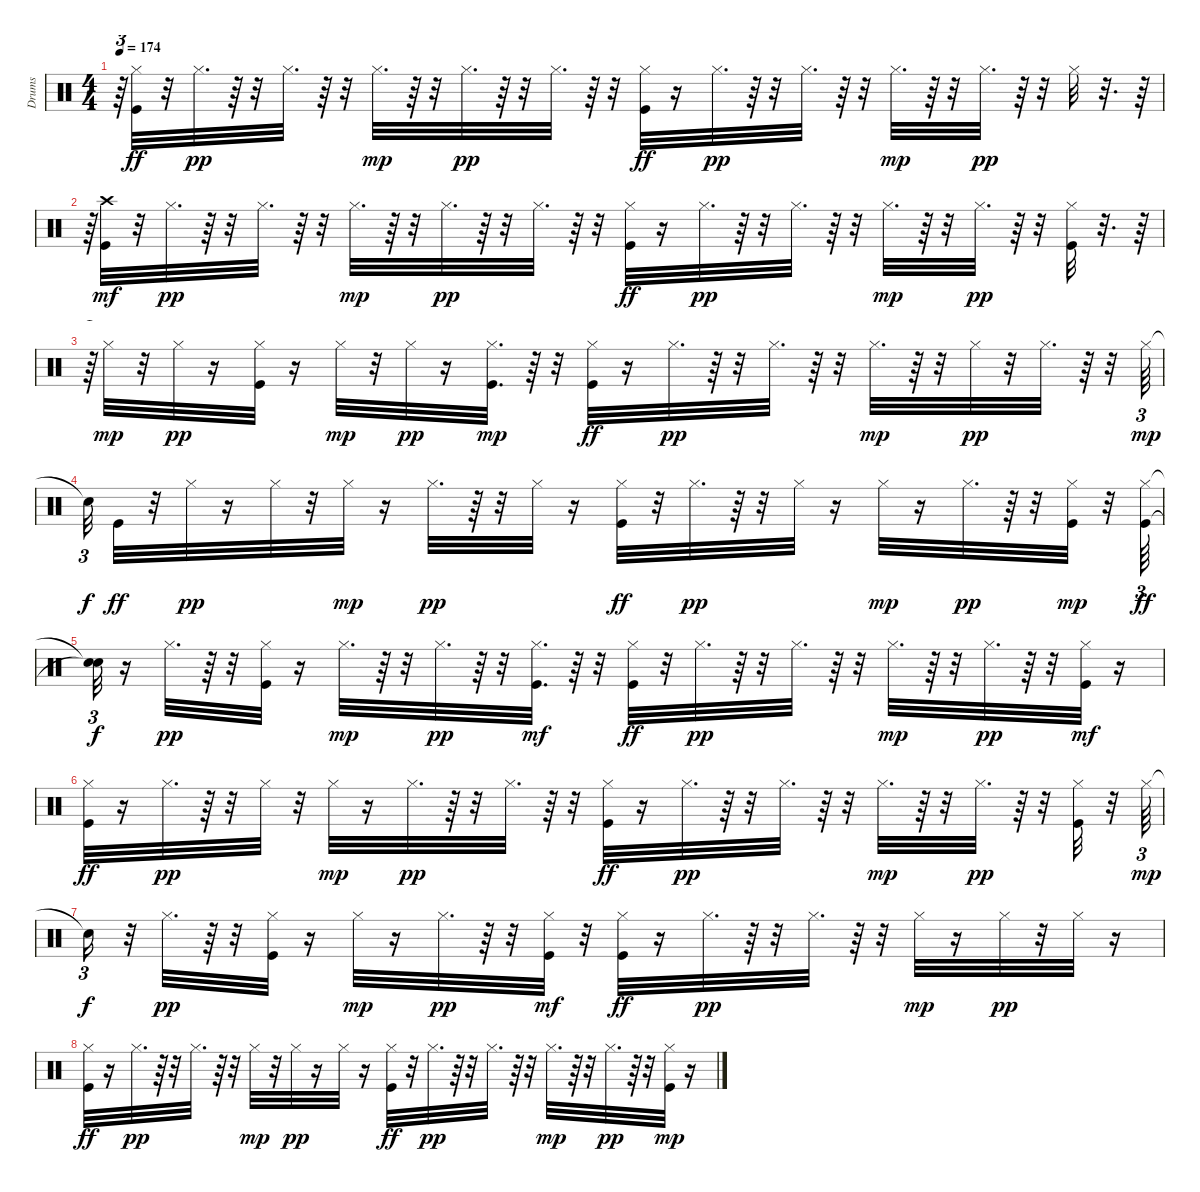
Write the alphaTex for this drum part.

\track ("Drums" "Drums") {instrument percussion}
\staff {score}
\articulation defaults
\ts (4 4)
\tempo 174
\clef neutral
\ks c
r.64{tu (3 2) dy pp} ("Hi-Hat (closed)" "Kick (hit)").32{dy ff} r.32 "Hi-Hat (closed)".32{d dy pp} r.64 r.32 "Hi-Hat (closed)".32{d} r.64 r.32 "Hi-Hat (closed)".32{d dy mp} r.64 r.32 "Hi-Hat (closed)".32{d dy pp} r.64 r.32 "Hi-Hat (closed)".32{d} r.64 r.32 ("Hi-Hat (closed)" "Kick (hit)").32{dy ff} r.16 "Hi-Hat (closed)".32{d dy pp} r.64 r.32 "Hi-Hat (closed)".32{d} r.64 r.32 "Hi-Hat (closed)".32{d dy mp} r.64 r.32 "Hi-Hat (closed)".32{d dy pp} r.64 r.32 "Hi-Hat (closed)".32 r.32{d} r.64 |
r.64{tu (3 2)} ("Kick (hit)" "Crash high (hit)").32{dy mf} r.32 "Hi-Hat (closed)".32{d dy pp} r.64 r.32 "Hi-Hat (closed)".32{d} r.64 r.32 "Hi-Hat (closed)".32{d dy mp} r.64 r.32 "Hi-Hat (closed)".32{d dy pp} r.64 r.32 "Hi-Hat (closed)".32{d} r.64 r.32 ("Hi-Hat (closed)" "Kick (hit)").32{dy ff} r.16 "Hi-Hat (closed)".32{d dy pp} r.64 r.32 "Hi-Hat (closed)".32{d} r.64 r.32 "Hi-Hat (closed)".32{d dy mp} r.64 r.32 "Hi-Hat (closed)".32{d dy pp} r.64 r.32 ("Hi-Hat (closed)" "Kick (hit)").32 r.32{d} r.64 |
r.64{tu (3 2)} "Hi-Hat (closed)".32{dy mp} r.32 "Hi-Hat (closed)".32{dy pp} r.16 ("Hi-Hat (closed)" "Kick (hit)").32 r.16 "Hi-Hat (closed)".32{dy mp} r.32 "Hi-Hat (closed)".32{dy pp} r.16 ("Hi-Hat (closed)" "Kick (hit)").32{d dy mp} r.64 r.32 ("Hi-Hat (closed)" "Kick (hit)").32{dy ff} r.16 "Hi-Hat (closed)".32{d dy pp} r.64 r.32 "Hi-Hat (closed)".32{d} r.64 r.32 "Hi-Hat (closed)".32{d dy mp} r.64 r.32 "Hi-Hat (closed)".32{dy pp} r.32 "Hi-Hat (closed)".32{d} r.64 r.32 "Hi-Hat (closed)".64{tu (3 2) dy mp} |
"Snare (hit)"{t}.32{tu (3 2) dy f} "Kick (hit)".32{dy ff} r.32 "Hi-Hat (closed)".32{dy pp} r.16 "Hi-Hat (closed)".32 r.32 "Hi-Hat (closed)".32{dy mp} r.16 "Hi-Hat (closed)".32{d dy pp} r.64 r.32 "Hi-Hat (closed)".32 r.16 ("Hi-Hat (closed)" "Kick (hit)").32{dy ff} r.32 "Hi-Hat (closed)".32{d dy pp} r.64 r.32 "Hi-Hat (closed)".32 r.16 "Hi-Hat (closed)".32{dy mp} r.16 "Hi-Hat (closed)".32{d dy pp} r.64 r.32 ("Hi-Hat (closed)" "Kick (hit)").32{dy mp} r.32 ("Hi-Hat (closed)" "Kick (hit)").64{tu (3 2) dy ff} |
("Snare (hit)"{t} "Snare (hit)"{t}).32{tu (3 2) dy f} r.16 "Hi-Hat (closed)".32{d dy pp} r.64 r.32 ("Hi-Hat (closed)" "Kick (hit)").32 r.16 "Hi-Hat (closed)".32{d dy mp} r.64 r.32 "Hi-Hat (closed)".32{d dy pp} r.64 r.32 ("Hi-Hat (closed)" "Kick (hit)").32{d dy mf} r.64 r.32 ("Hi-Hat (closed)" "Kick (hit)").32{dy ff} r.32 "Hi-Hat (closed)".32{d dy pp} r.64 r.32 "Hi-Hat (closed)".32{d} r.64 r.32 "Hi-Hat (closed)".32{d dy mp} r.64 r.32 "Hi-Hat (closed)".32{d dy pp} r.64 r.32 ("Hi-Hat (closed)" "Kick (hit)").32{dy mf} r.16 |
("Hi-Hat (closed)" "Kick (hit)").32{dy ff} r.16 "Hi-Hat (closed)".32{d dy pp} r.64 r.32 "Hi-Hat (closed)".32 r.32 "Hi-Hat (closed)".32{dy mp} r.16 "Hi-Hat (closed)".32{d dy pp} r.64 r.32 "Hi-Hat (closed)".32{d} r.64 r.32 ("Hi-Hat (closed)" "Kick (hit)").32{dy ff} r.16 "Hi-Hat (closed)".32{d dy pp} r.64 r.32 "Hi-Hat (closed)".32{d} r.64 r.32 "Hi-Hat (closed)".32{d dy mp} r.64 r.32 "Hi-Hat (closed)".32{d dy pp} r.64 r.32 ("Hi-Hat (closed)" "Kick (hit)").32 r.32 "Hi-Hat (closed)".64{tu (3 2) dy mp} |
"Snare (hit)"{t}.16{tu (3 2) dy f} r.32 "Hi-Hat (closed)".32{d dy pp} r.64 r.32 ("Hi-Hat (closed)" "Kick (hit)").32 r.16 "Hi-Hat (closed)".32{dy mp} r.16 "Hi-Hat (closed)".32{d dy pp} r.64 r.32 ("Hi-Hat (closed)" "Kick (hit)").32{dy mf} r.32 ("Hi-Hat (closed)" "Kick (hit)").32{dy ff} r.16 "Hi-Hat (closed)".32{d dy pp} r.64 r.32 "Hi-Hat (closed)".32{d} r.64 r.32 "Hi-Hat (closed)".32{dy mp} r.16 "Hi-Hat (closed)".32{dy pp} r.32 "Hi-Hat (closed)".32 r.16 |
("Hi-Hat (closed)" "Kick (hit)").32{dy ff} r.16 "Hi-Hat (closed)".32{d dy pp} r.64 r.32 "Hi-Hat (closed)".32{d} r.64 r.32 "Hi-Hat (closed)".32{dy mp} r.32 "Hi-Hat (closed)".32{dy pp} r.16 "Hi-Hat (closed)".32 r.16 ("Hi-Hat (closed)" "Kick (hit)").32{dy ff} r.32 "Hi-Hat (closed)".32{d dy pp} r.64 r.32 "Hi-Hat (closed)".32{d} r.64 r.32 "Hi-Hat (closed)".32{d dy mp} r.64 r.32 "Hi-Hat (closed)".32{d dy pp} r.64 r.32 ("Hi-Hat (closed)" "Kick (hit)").32{dy mp} r.16
